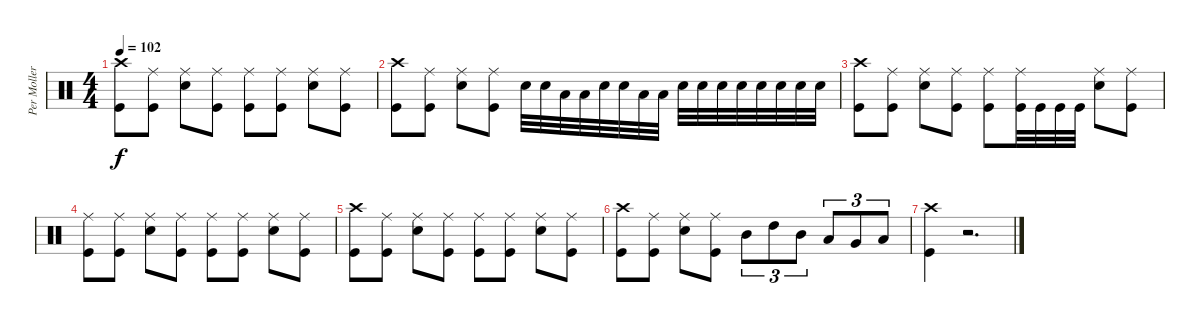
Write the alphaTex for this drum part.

\track ("Per Moller Jensen" "Per Moller") {instrument percussion}
\staff {score}
\articulation defaults
\ts (4 4)
\tempo 102
\clef neutral
\ks c
("Crash high (hit)" "Kick (hit)").8{dy f} ("Ride (middle)" "Kick (hit)").8 ("Ride (middle)" "Snare (hit) 2").8 ("Ride (middle)" "Kick (hit)").8 ("Ride (middle)" "Kick (hit)").8 ("Ride (middle)" "Kick (hit)").8 ("Ride (middle)" "Snare (hit) 2").8 ("Ride (middle)" "Kick (hit)").8 |
("Crash high (hit)" "Kick (hit)").8 ("Ride (middle)" "Kick (hit)").8 ("Ride (middle)" "Snare (hit) 2").8 ("Ride (middle)" "Kick (hit)").8 "Snare (hit) 2".32 "Snare (hit) 2".32 "Low Tom (hit)".32 "Low Tom (hit)".32 "Snare (hit) 2".32 "Snare (hit) 2".32 "Low Tom (hit)".32 "Low Tom (hit)".32 "Snare (hit) 2".32 "Snare (hit) 2".32 "Snare (hit) 2".32 "Snare (hit) 2".32 "Snare (hit) 2".32 "Snare (hit) 2".32 "Snare (hit) 2".32 "Snare (hit) 2".32 |
("Crash high (hit)" "Kick (hit)").8 ("Ride (middle)" "Kick (hit)").8 ("Ride (middle)" "Snare (hit) 2").8 ("Ride (middle)" "Kick (hit)").8 ("Ride (middle)" "Kick (hit)").8 ("Ride (middle)" "Kick (hit)").32 "Kick (hit)".32 "Kick (hit)".32 "Kick (hit)".32 ("Ride (middle)" "Snare (hit) 2").8 ("Ride (middle)" "Kick (hit)").8 |
("Ride (middle)" "Kick (hit)").8 ("Ride (middle)" "Kick (hit)").8 ("Ride (middle)" "Snare (hit) 2").8 ("Ride (middle)" "Kick (hit)").8 ("Ride (middle)" "Kick (hit)").8 ("Ride (middle)" "Kick (hit)").8 ("Ride (middle)" "Snare (hit) 2").8 ("Ride (middle)" "Kick (hit)").8 |
("Crash high (hit)" "Kick (hit)").8 ("Ride (middle)" "Kick (hit)").8 ("Ride (middle)" "Snare (hit) 2").8 ("Ride (middle)" "Kick (hit)").8 ("Ride (middle)" "Kick (hit)").8 ("Ride (middle)" "Kick (hit)").8 ("Ride (middle)" "Snare (hit) 2").8 ("Ride (middle)" "Kick (hit)").8 |
("Crash high (hit)" "Kick (hit)").8 ("Ride (middle)" "Kick (hit)").8 ("Ride (middle)" "Snare (hit) 2").8 ("Ride (middle)" "Kick (hit)").8 "Mid Tom (hit)".8{tu (3 2)} "High Tom (hit)".8{tu (3 2)} "Mid Tom (hit)".8{tu (3 2)} "Low Tom (hit)".8{tu (3 2)} "Very Low Tom (hit)".8{tu (3 2)} "Low Tom (hit)".8{tu (3 2)} |
("Crash high (hit)" "Kick (hit)").4 r.2{d}
